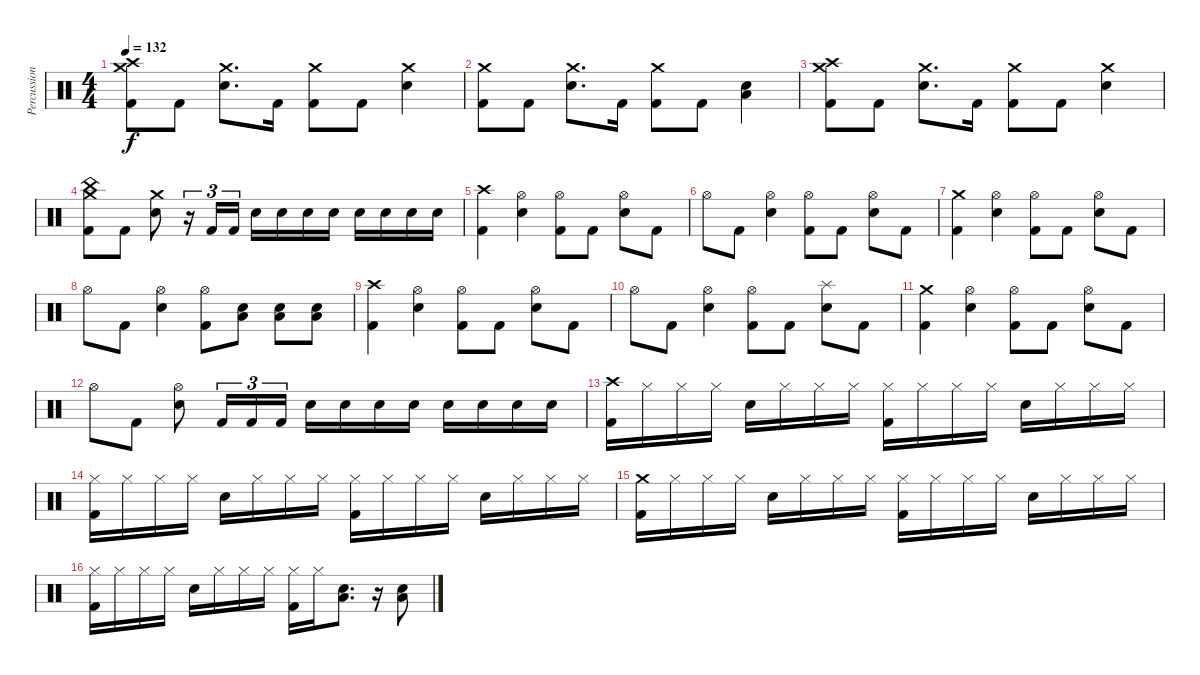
\track ("Percussion" "Percussion") {instrument percussion}
\staff {score}
\articulation defaults
\ts (4 4)
\tempo 132
\clef neutral
\ks c
("Crash medium (hit)" "Crash high (hit)" "Kick (hit) 2").8{dy f} "Kick (hit) 2".8 ("Crash medium (hit)" "Electric Snare (hit)").8{d} "Kick (hit) 2".16 ("Crash medium (hit)" "Kick (hit) 2").8 "Kick (hit) 2".8 ("Crash medium (hit)" "Electric Snare (hit)").4 |
("Crash medium (hit)" "Kick (hit) 2").8 "Kick (hit) 2".8 ("Crash medium (hit)" "Electric Snare (hit)").8{d} "Kick (hit) 2".16 ("Crash medium (hit)" "Kick (hit) 2").8 "Kick (hit) 2".8 ("Electric Snare (hit)" "Low Floor Tom (hit)").4 |
("Crash medium (hit)" "Crash high (hit)" "Kick (hit) 2").8 "Kick (hit) 2".8 ("Crash medium (hit)" "Electric Snare (hit)").8{d} "Kick (hit) 2".16 ("Crash medium (hit)" "Kick (hit) 2").8 "Kick (hit) 2".8 ("Crash medium (hit)" "Electric Snare (hit)").4 |
("Crash medium (hit)" "China (hit)" "Kick (hit) 2").8 "Kick (hit) 2".8 ("Crash medium (hit)" "Electric Snare (hit)").8 r.16{tu (3 2)} "Kick (hit) 2".16{tu (3 2)} "Kick (hit) 2".16{tu (3 2)} "Electric Snare (hit)".16 "Electric Snare (hit)".16 "Electric Snare (hit)".16 "Electric Snare (hit)".16 "Electric Snare (hit)".16 "Electric Snare (hit)".16 "Electric Snare (hit)".16 "Electric Snare (hit)".16 |
("Crash high (hit)" "Kick (hit) 2").4 ("Hi-Hat (open)" "Electric Snare (hit)").4 ("Hi-Hat (open)" "Kick (hit) 2").8 "Kick (hit) 2".8 ("Hi-Hat (open)" "Electric Snare (hit)").8 "Kick (hit) 2".8 |
"Hi-Hat (open)".8 "Kick (hit) 2".8 ("Hi-Hat (open)" "Electric Snare (hit)").4 ("Hi-Hat (open)" "Kick (hit) 2").8 "Kick (hit) 2".8 ("Hi-Hat (open)" "Electric Snare (hit)").8 "Kick (hit) 2".8 |
("Crash medium (hit)" "Kick (hit) 2").4 ("Hi-Hat (open)" "Electric Snare (hit)").4 ("Hi-Hat (open)" "Kick (hit) 2").8 "Kick (hit) 2".8 ("Hi-Hat (open)" "Electric Snare (hit)").8 "Kick (hit) 2".8 |
"Hi-Hat (open)".8 "Kick (hit) 2".8 ("Hi-Hat (open)" "Electric Snare (hit)").4 ("Hi-Hat (open)" "Kick (hit) 2").8 ("Electric Snare (hit)" "Low Floor Tom (hit)").8 ("Electric Snare (hit)" "Low Floor Tom (hit)").8 ("Electric Snare (hit)" "Low Floor Tom (hit)").8 |
("Crash high (hit)" "Kick (hit) 2").4 ("Hi-Hat (open)" "Electric Snare (hit)").4 ("Hi-Hat (open)" "Kick (hit) 2").8 "Kick (hit) 2".8 ("Hi-Hat (open)" "Electric Snare (hit)").8 "Kick (hit) 2".8 |
"Hi-Hat (open)".8 "Kick (hit) 2".8 ("Hi-Hat (open)" "Electric Snare (hit)").4 ("Hi-Hat (open)" "Kick (hit) 2").8 "Kick (hit) 2".8 ("Splash (hit)" "Electric Snare (hit)").8 "Kick (hit) 2".8 |
("Crash medium (hit)" "Kick (hit) 2").4 ("Hi-Hat (open)" "Electric Snare (hit)").4 ("Hi-Hat (open)" "Kick (hit) 2").8 "Kick (hit) 2".8 ("Hi-Hat (open)" "Electric Snare (hit)").8 "Kick (hit) 2".8 |
"Hi-Hat (open)".8 "Kick (hit) 2".8 ("Hi-Hat (open)" "Electric Snare (hit)").8 "Kick (hit) 2".16{tu (3 2)} "Kick (hit) 2".16{tu (3 2)} "Kick (hit) 2".16{tu (3 2)} "Electric Snare (hit)".16 "Electric Snare (hit)".16 "Electric Snare (hit)".16 "Electric Snare (hit)".16 "Electric Snare (hit)".16 "Electric Snare (hit)".16 "Electric Snare (hit)".16 "Electric Snare (hit)".16 |
("Crash high (hit)" "Kick (hit) 2").16 "Hi-Hat (closed)".16 "Hi-Hat (closed)".16 "Hi-Hat (closed)".16 "Electric Snare (hit)".16 "Hi-Hat (closed)".16 "Hi-Hat (closed)".16 "Hi-Hat (closed)".16 ("Hi-Hat (closed)" "Kick (hit) 2").16 "Hi-Hat (closed)".16 "Hi-Hat (closed)".16 "Hi-Hat (closed)".16 "Electric Snare (hit)".16 "Hi-Hat (closed)".16 "Hi-Hat (closed)".16 "Hi-Hat (closed)".16 |
("Hi-Hat (closed)" "Kick (hit) 2").16 "Hi-Hat (closed)".16 "Hi-Hat (closed)".16 "Hi-Hat (closed)".16 "Electric Snare (hit)".16 "Hi-Hat (closed)".16 "Hi-Hat (closed)".16 "Hi-Hat (closed)".16 ("Hi-Hat (closed)" "Kick (hit) 2").16 "Hi-Hat (closed)".16 "Hi-Hat (closed)".16 "Hi-Hat (closed)".16 "Electric Snare (hit)".16 "Hi-Hat (closed)".16 "Hi-Hat (closed)".16 "Hi-Hat (closed)".16 |
("Crash medium (hit)" "Kick (hit) 2").16 "Hi-Hat (closed)".16 "Hi-Hat (closed)".16 "Hi-Hat (closed)".16 "Electric Snare (hit)".16 "Hi-Hat (closed)".16 "Hi-Hat (closed)".16 "Hi-Hat (closed)".16 ("Hi-Hat (closed)" "Kick (hit) 2").16 "Hi-Hat (closed)".16 "Hi-Hat (closed)".16 "Hi-Hat (closed)".16 "Electric Snare (hit)".16 "Hi-Hat (closed)".16 "Hi-Hat (closed)".16 "Hi-Hat (closed)".16 |
("Hi-Hat (closed)" "Kick (hit) 2").16 "Hi-Hat (closed)".16 "Hi-Hat (closed)".16 "Hi-Hat (closed)".16 "Electric Snare (hit)".16 "Hi-Hat (closed)".16 "Hi-Hat (closed)".16 "Hi-Hat (closed)".16 ("Hi-Hat (closed)" "Kick (hit) 2").16 "Hi-Hat (closed)".16 ("Electric Snare (hit)" "Low Floor Tom (hit)").8{d} r.16 ("Electric Snare (hit)" "Low Floor Tom (hit)").8
